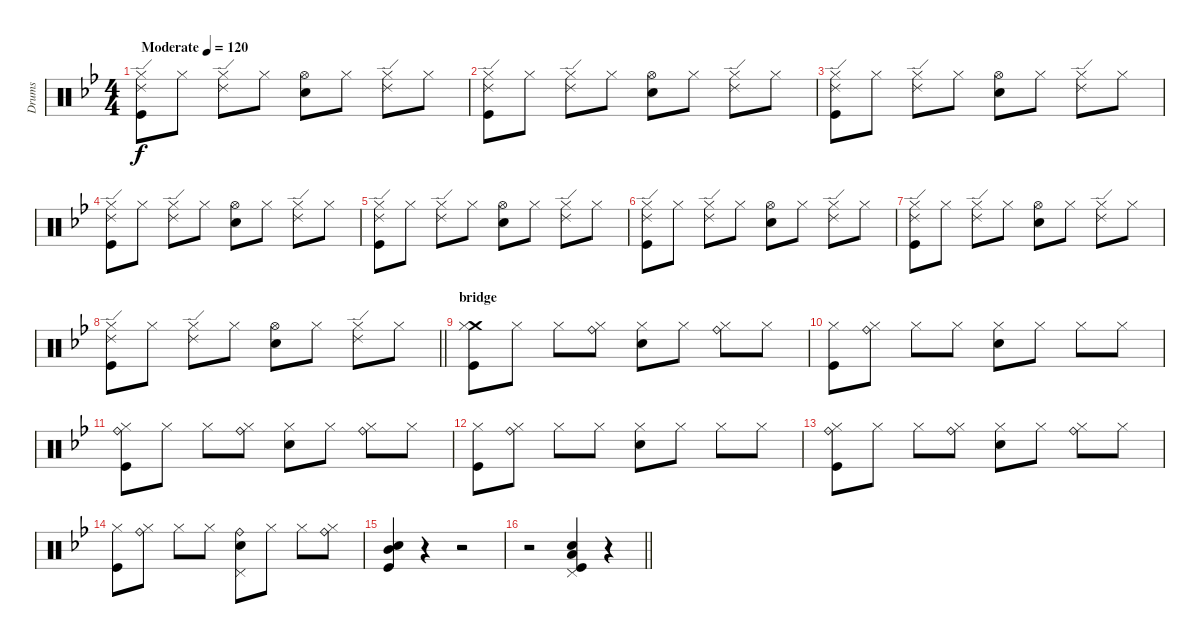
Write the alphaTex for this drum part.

\track ("Drums" "Drums") {instrument percussion}
\staff {score}
\articulation defaults
\ts (4 4)
\tempo (120 "Moderate")
\tempo 170
\tempo (120 "Moderate")
\clef neutral
\ks gminor
("Hi-Hat (closed)" "Ride (edge) 2" "Kick (hit)").8{dy f} "Hi-Hat (closed)".8 ("Hi-Hat (closed)" "Ride (edge) 2").8 "Hi-Hat (closed)".8 ("Hi-Hat (open)" "Electric Snare (hit)").8 "Hi-Hat (closed)".8 ("Hi-Hat (closed)" "Ride (edge) 2").8 "Hi-Hat (closed)".8 |
("Hi-Hat (closed)" "Ride (edge) 2" "Kick (hit)").8 "Hi-Hat (closed)".8 ("Hi-Hat (closed)" "Ride (edge) 2").8 "Hi-Hat (closed)".8 ("Hi-Hat (open)" "Electric Snare (hit)").8 "Hi-Hat (closed)".8 ("Hi-Hat (closed)" "Ride (edge) 2").8 "Hi-Hat (closed)".8 |
("Hi-Hat (closed)" "Ride (edge) 2" "Kick (hit)").8 "Hi-Hat (closed)".8 ("Hi-Hat (closed)" "Ride (edge) 2").8 "Hi-Hat (closed)".8 ("Hi-Hat (open)" "Electric Snare (hit)").8 "Hi-Hat (closed)".8 ("Hi-Hat (closed)" "Ride (edge) 2").8 "Hi-Hat (closed)".8 |
("Hi-Hat (closed)" "Ride (edge) 2" "Kick (hit)").8 "Hi-Hat (closed)".8 ("Hi-Hat (closed)" "Ride (edge) 2").8 "Hi-Hat (closed)".8 ("Hi-Hat (open)" "Electric Snare (hit)").8 "Hi-Hat (closed)".8 ("Hi-Hat (closed)" "Ride (edge) 2").8 "Hi-Hat (closed)".8 |
("Hi-Hat (closed)" "Ride (edge) 2" "Kick (hit)").8 "Hi-Hat (closed)".8 ("Hi-Hat (closed)" "Ride (edge) 2").8 "Hi-Hat (closed)".8 ("Hi-Hat (open)" "Electric Snare (hit)").8 "Hi-Hat (closed)".8 ("Hi-Hat (closed)" "Ride (edge) 2").8 "Hi-Hat (closed)".8 |
("Hi-Hat (closed)" "Ride (edge) 2" "Kick (hit)").8 "Hi-Hat (closed)".8 ("Hi-Hat (closed)" "Ride (edge) 2").8 "Hi-Hat (closed)".8 ("Hi-Hat (open)" "Electric Snare (hit)").8 "Hi-Hat (closed)".8 ("Hi-Hat (closed)" "Ride (edge) 2").8 "Hi-Hat (closed)".8 |
("Hi-Hat (closed)" "Ride (edge) 2" "Kick (hit)").8 "Hi-Hat (closed)".8 ("Hi-Hat (closed)" "Ride (edge) 2").8 "Hi-Hat (closed)".8 ("Hi-Hat (open)" "Electric Snare (hit)").8 "Hi-Hat (closed)".8 ("Hi-Hat (closed)" "Ride (edge) 2").8 "Hi-Hat (closed)".8 |
\barLineRight lightlight
("Hi-Hat (closed)" "Ride (edge) 2" "Kick (hit)").8 "Hi-Hat (closed)".8 ("Hi-Hat (closed)" "Ride (edge) 2").8 "Hi-Hat (closed)".8 ("Hi-Hat (open)" "Electric Snare (hit)").8 "Hi-Hat (closed)".8 ("Hi-Hat (closed)" "Ride (edge) 2").8 "Hi-Hat (closed)".8 |
\section ("" "bridge")
("Crash medium (hit)" "Hi-Hat (closed)" "Kick (hit)").8 "Hi-Hat (closed)".8 "Hi-Hat (closed)".8 ("Ride (bell)" "Hi-Hat (closed)").8 ("Hi-Hat (closed)" "Electric Snare (hit)").8 "Hi-Hat (closed)".8 ("Ride (bell)" "Hi-Hat (closed)").8 "Hi-Hat (closed)".8 |
("Hi-Hat (closed)" "Kick (hit)").8 ("Ride (bell)" "Hi-Hat (closed)").8 "Hi-Hat (closed)".8 "Hi-Hat (closed)".8 ("Hi-Hat (closed)" "Electric Snare (hit)").8 "Hi-Hat (closed)".8 "Hi-Hat (closed)".8 "Hi-Hat (closed)".8 |
("Ride (bell)" "Hi-Hat (closed)" "Kick (hit)").8 "Hi-Hat (closed)".8 "Hi-Hat (closed)".8 ("Ride (bell)" "Hi-Hat (closed)").8 ("Hi-Hat (closed)" "Electric Snare (hit)").8 "Hi-Hat (closed)".8 ("Ride (bell)" "Hi-Hat (closed)").8 "Hi-Hat (closed)".8 |
("Hi-Hat (closed)" "Kick (hit)").8 ("Ride (bell)" "Hi-Hat (closed)").8 "Hi-Hat (closed)".8 "Hi-Hat (closed)".8 ("Hi-Hat (closed)" "Electric Snare (hit)").8 "Hi-Hat (closed)".8 "Hi-Hat (closed)".8 "Hi-Hat (closed)".8 |
("Ride (bell)" "Hi-Hat (closed)" "Kick (hit)").8 "Hi-Hat (closed)".8 "Hi-Hat (closed)".8 ("Ride (bell)" "Hi-Hat (closed)").8 ("Hi-Hat (closed)" "Electric Snare (hit)").8 "Hi-Hat (closed)".8 ("Ride (bell)" "Hi-Hat (closed)").8 "Hi-Hat (closed)".8 |
("Hi-Hat (closed)" "Kick (hit)").8 ("Ride (bell)" "Hi-Hat (closed)").8 "Hi-Hat (closed)".8 "Hi-Hat (closed)".8 ("Ride (bell)" "Pedal Hi-Hat (hit)" "Electric Snare (hit)").8 "Hi-Hat (closed)".8 "Hi-Hat (closed)".8 ("Ride (bell)" "Hi-Hat (closed)").8 |
("Mid Tom (hit)" "Electric Snare (hit)" "Kick (hit)").4 r.4 r.2 |
\barLineRight lightlight
r.2 ("Pedal Hi-Hat (hit)" "Low Tom (hit)" "Electric Snare (hit)" "Kick (hit)").4 r.4
